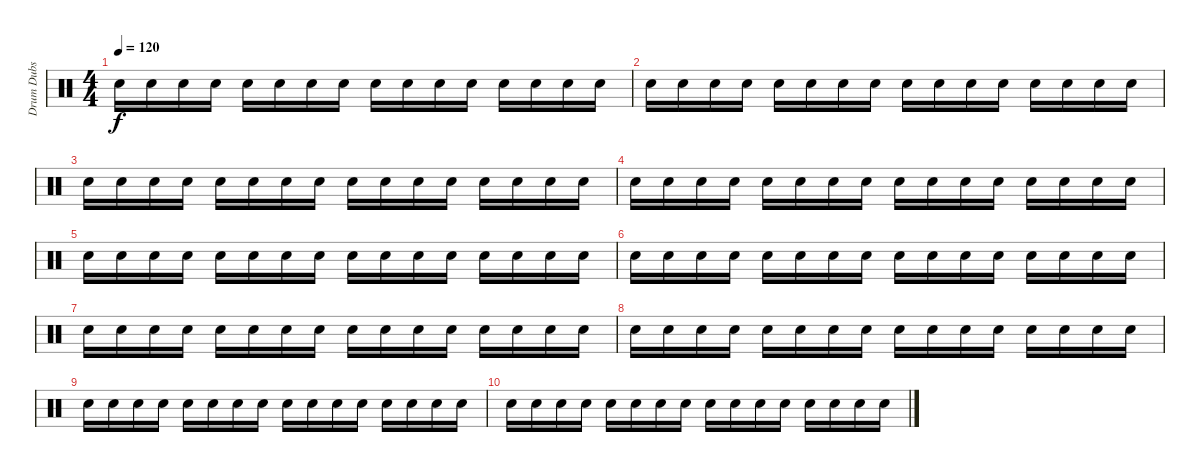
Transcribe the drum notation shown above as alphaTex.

\track ("Drum Dubs" "Drum Dubs") {instrument percussion}
\staff {score}
\articulation defaults
\ts (4 4)
\tempo 120
\clef neutral
\ks c "Electric Snare (hit)".16{dy f} "Electric Snare (hit)".16 "Electric Snare (hit)".16 "Electric Snare (hit)".16 "Electric Snare (hit)".16 "Electric Snare (hit)".16 "Electric Snare (hit)".16 "Electric Snare (hit)".16 "Electric Snare (hit)".16 "Electric Snare (hit)".16 "Electric Snare (hit)".16 "Electric Snare (hit)".16 "Electric Snare (hit)".16 "Electric Snare (hit)".16 "Electric Snare (hit)".16 "Electric Snare (hit)".16
|
"Electric Snare (hit)".16 "Electric Snare (hit)".16 "Electric Snare (hit)".16 "Electric Snare (hit)".16 "Electric Snare (hit)".16 "Electric Snare (hit)".16 "Electric Snare (hit)".16 "Electric Snare (hit)".16 "Electric Snare (hit)".16 "Electric Snare (hit)".16 "Electric Snare (hit)".16 "Electric Snare (hit)".16 "Electric Snare (hit)".16 "Electric Snare (hit)".16 "Electric Snare (hit)".16 "Electric Snare (hit)".16 |
"Electric Snare (hit)".16 "Electric Snare (hit)".16 "Electric Snare (hit)".16 "Electric Snare (hit)".16 "Electric Snare (hit)".16 "Electric Snare (hit)".16 "Electric Snare (hit)".16 "Electric Snare (hit)".16 "Electric Snare (hit)".16 "Electric Snare (hit)".16 "Electric Snare (hit)".16 "Electric Snare (hit)".16 "Electric Snare (hit)".16 "Electric Snare (hit)".16 "Electric Snare (hit)".16 "Electric Snare (hit)".16 |
"Electric Snare (hit)".16 "Electric Snare (hit)".16 "Electric Snare (hit)".16 "Electric Snare (hit)".16 "Electric Snare (hit)".16 "Electric Snare (hit)".16 "Electric Snare (hit)".16 "Electric Snare (hit)".16 "Electric Snare (hit)".16 "Electric Snare (hit)".16 "Electric Snare (hit)".16 "Electric Snare (hit)".16 "Electric Snare (hit)".16 "Electric Snare (hit)".16 "Electric Snare (hit)".16 "Electric Snare (hit)".16 |
"Electric Snare (hit)".16 "Electric Snare (hit)".16 "Electric Snare (hit)".16 "Electric Snare (hit)".16 "Electric Snare (hit)".16 "Electric Snare (hit)".16 "Electric Snare (hit)".16 "Electric Snare (hit)".16 "Electric Snare (hit)".16 "Electric Snare (hit)".16 "Electric Snare (hit)".16 "Electric Snare (hit)".16 "Electric Snare (hit)".16 "Electric Snare (hit)".16 "Electric Snare (hit)".16 "Electric Snare (hit)".16 |
"Electric Snare (hit)".16 "Electric Snare (hit)".16 "Electric Snare (hit)".16 "Electric Snare (hit)".16 "Electric Snare (hit)".16 "Electric Snare (hit)".16 "Electric Snare (hit)".16 "Electric Snare (hit)".16 "Electric Snare (hit)".16 "Electric Snare (hit)".16 "Electric Snare (hit)".16 "Electric Snare (hit)".16 "Electric Snare (hit)".16 "Electric Snare (hit)".16 "Electric Snare (hit)".16 "Electric Snare (hit)".16 |
"Electric Snare (hit)".16 "Electric Snare (hit)".16 "Electric Snare (hit)".16 "Electric Snare (hit)".16 "Electric Snare (hit)".16 "Electric Snare (hit)".16 "Electric Snare (hit)".16 "Electric Snare (hit)".16 "Electric Snare (hit)".16 "Electric Snare (hit)".16 "Electric Snare (hit)".16 "Electric Snare (hit)".16 "Electric Snare (hit)".16 "Electric Snare (hit)".16 "Electric Snare (hit)".16 "Electric Snare (hit)".16 |
"Electric Snare (hit)".16 "Electric Snare (hit)".16 "Electric Snare (hit)".16 "Electric Snare (hit)".16 "Electric Snare (hit)".16 "Electric Snare (hit)".16 "Electric Snare (hit)".16 "Electric Snare (hit)".16 "Electric Snare (hit)".16 "Electric Snare (hit)".16 "Electric Snare (hit)".16 "Electric Snare (hit)".16 "Electric Snare (hit)".16 "Electric Snare (hit)".16 "Electric Snare (hit)".16 "Electric Snare (hit)".16 |
"Electric Snare (hit)".16 "Electric Snare (hit)".16 "Electric Snare (hit)".16 "Electric Snare (hit)".16 "Electric Snare (hit)".16 "Electric Snare (hit)".16 "Electric Snare (hit)".16 "Electric Snare (hit)".16 "Electric Snare (hit)".16 "Electric Snare (hit)".16 "Electric Snare (hit)".16 "Electric Snare (hit)".16 "Electric Snare (hit)".16 "Electric Snare (hit)".16 "Electric Snare (hit)".16 "Electric Snare (hit)".16 |
"Electric Snare (hit)".16 "Electric Snare (hit)".16 "Electric Snare (hit)".16 "Electric Snare (hit)".16 "Electric Snare (hit)".16 "Electric Snare (hit)".16 "Electric Snare (hit)".16 "Electric Snare (hit)".16 "Electric Snare (hit)".16 "Electric Snare (hit)".16 "Electric Snare (hit)".16 "Electric Snare (hit)".16 "Electric Snare (hit)".16 "Electric Snare (hit)".16 "Electric Snare (hit)".16 "Electric Snare (hit)".16
